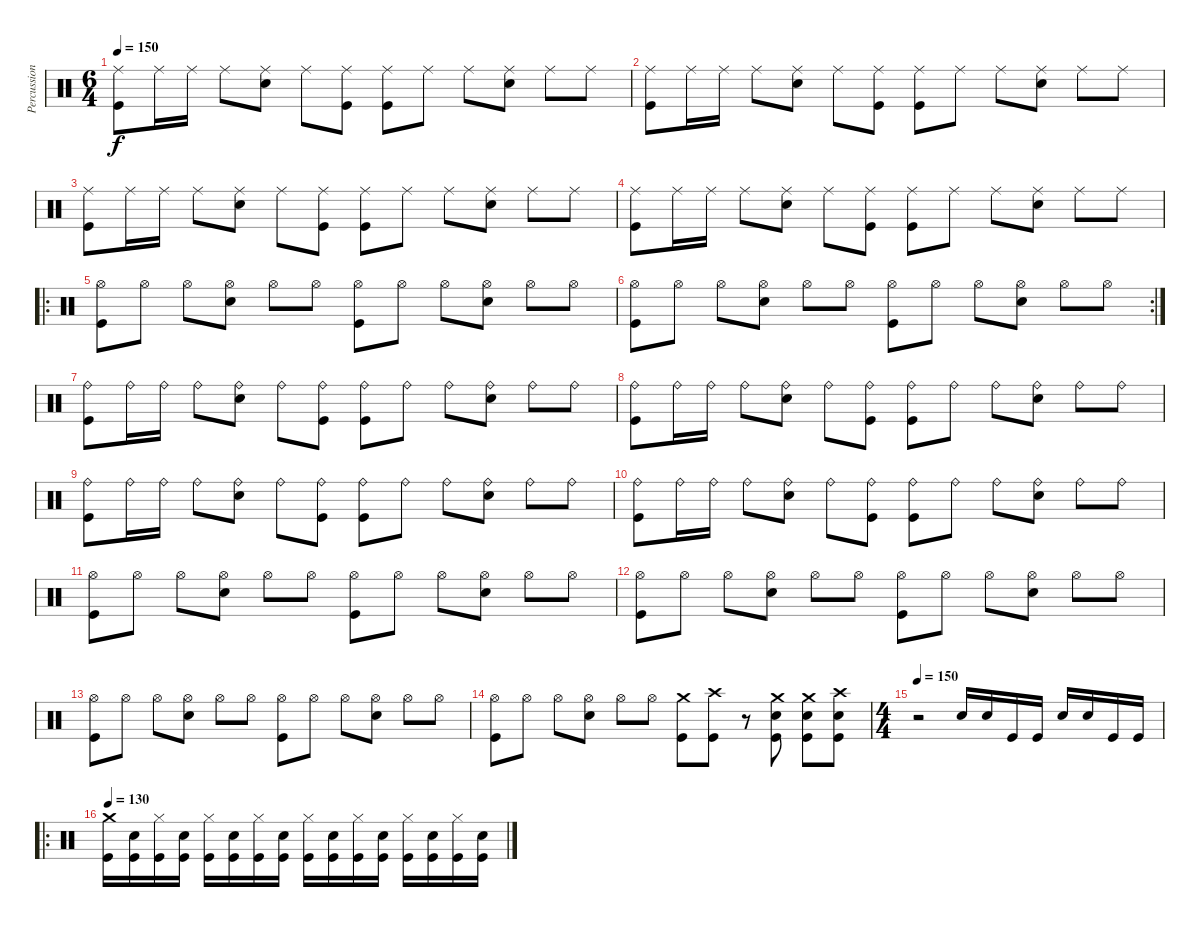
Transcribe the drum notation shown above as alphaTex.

\track ("Percussion" "Percussion") {instrument percussion}
\staff {score}
\articulation defaults
\ts (6 4)
\tempo 150
\tempo 160
\tempo 150
\clef neutral
\ks c
("Ride (middle)" "Kick (hit)").8{dy f} "Ride (middle)".16 "Ride (middle)".16 "Ride (middle)".8 ("Ride (middle)" "Snare (hit) 2").8 "Ride (middle)".8 ("Ride (middle)" "Kick (hit)").8 ("Ride (middle)" "Kick (hit)").8 "Ride (middle)".8 "Ride (middle)".8 ("Ride (middle)" "Snare (hit) 2").8 "Ride (middle)".8 "Ride (middle)".8 |
("Ride (middle)" "Kick (hit)").8 "Ride (middle)".16 "Ride (middle)".16 "Ride (middle)".8 ("Ride (middle)" "Snare (hit) 2").8 "Ride (middle)".8 ("Ride (middle)" "Kick (hit)").8 ("Ride (middle)" "Kick (hit)").8 "Ride (middle)".8 "Ride (middle)".8 ("Ride (middle)" "Snare (hit) 2").8 "Ride (middle)".8 "Ride (middle)".8 |
("Ride (middle)" "Kick (hit)").8 "Ride (middle)".16 "Ride (middle)".16 "Ride (middle)".8 ("Ride (middle)" "Snare (hit) 2").8 "Ride (middle)".8 ("Ride (middle)" "Kick (hit)").8 ("Ride (middle)" "Kick (hit)").8 "Ride (middle)".8 "Ride (middle)".8 ("Ride (middle)" "Snare (hit) 2").8 "Ride (middle)".8 "Ride (middle)".8 |
("Ride (middle)" "Kick (hit)").8 "Ride (middle)".16 "Ride (middle)".16 "Ride (middle)".8 ("Ride (middle)" "Snare (hit) 2").8 "Ride (middle)".8 ("Ride (middle)" "Kick (hit)").8 ("Ride (middle)" "Kick (hit)").8 "Ride (middle)".8 "Ride (middle)".8 ("Ride (middle)" "Snare (hit) 2").8 "Ride (middle)".8 "Ride (middle)".8 |
\ro
("Hi-Hat (open)" "Kick (hit)").8 "Hi-Hat (open)".8 "Hi-Hat (open)".8 ("Hi-Hat (open)" "Snare (hit) 2").8 "Hi-Hat (open)".8 "Hi-Hat (open)".8 ("Hi-Hat (open)" "Kick (hit)").8 "Hi-Hat (open)".8 "Hi-Hat (open)".8 ("Hi-Hat (open)" "Snare (hit) 2").8 "Hi-Hat (open)".8 "Hi-Hat (open)".8 |
\rc 2
("Hi-Hat (open)" "Kick (hit)").8 "Hi-Hat (open)".8 "Hi-Hat (open)".8 ("Hi-Hat (open)" "Snare (hit) 2").8 "Hi-Hat (open)".8 "Hi-Hat (open)".8 ("Hi-Hat (open)" "Kick (hit)").8 "Hi-Hat (open)".8 "Hi-Hat (open)".8 ("Hi-Hat (open)" "Snare (hit) 2").8 "Hi-Hat (open)".8 "Hi-Hat (open)".8 |
("Ride (bell)" "Kick (hit)").8 "Ride (bell)".16 "Ride (bell)".16 "Ride (bell)".8 ("Ride (bell)" "Snare (hit) 2").8 "Ride (bell)".8 ("Ride (bell)" "Kick (hit)").8 ("Ride (bell)" "Kick (hit)").8 "Ride (bell)".8 "Ride (bell)".8 ("Ride (bell)" "Snare (hit) 2").8 "Ride (bell)".8 "Ride (bell)".8 |
("Ride (bell)" "Kick (hit)").8 "Ride (bell)".16 "Ride (bell)".16 "Ride (bell)".8 ("Ride (bell)" "Snare (hit) 2").8 "Ride (bell)".8 ("Ride (bell)" "Kick (hit)").8 ("Ride (bell)" "Kick (hit)").8 "Ride (bell)".8 "Ride (bell)".8 ("Ride (bell)" "Snare (hit) 2").8 "Ride (bell)".8 "Ride (bell)".8 |
("Ride (bell)" "Kick (hit)").8 "Ride (bell)".16 "Ride (bell)".16 "Ride (bell)".8 ("Ride (bell)" "Snare (hit) 2").8 "Ride (bell)".8 ("Ride (bell)" "Kick (hit)").8 ("Ride (bell)" "Kick (hit)").8 "Ride (bell)".8 "Ride (bell)".8 ("Ride (bell)" "Snare (hit) 2").8 "Ride (bell)".8 "Ride (bell)".8 |
("Ride (bell)" "Kick (hit)").8 "Ride (bell)".16 "Ride (bell)".16 "Ride (bell)".8 ("Ride (bell)" "Snare (hit) 2").8 "Ride (bell)".8 ("Ride (bell)" "Kick (hit)").8 ("Ride (bell)" "Kick (hit)").8 "Ride (bell)".8 "Ride (bell)".8 ("Ride (bell)" "Snare (hit) 2").8 "Ride (bell)".8 "Ride (bell)".8 |
("Hi-Hat (open)" "Kick (hit)").8 "Hi-Hat (open)".8 "Hi-Hat (open)".8 ("Hi-Hat (open)" "Snare (hit) 2").8 "Hi-Hat (open)".8 "Hi-Hat (open)".8 ("Hi-Hat (open)" "Kick (hit)").8 "Hi-Hat (open)".8 "Hi-Hat (open)".8 ("Hi-Hat (open)" "Snare (hit) 2").8 "Hi-Hat (open)".8 "Hi-Hat (open)".8 |
("Hi-Hat (open)" "Kick (hit)").8 "Hi-Hat (open)".8 "Hi-Hat (open)".8 ("Hi-Hat (open)" "Snare (hit) 2").8 "Hi-Hat (open)".8 "Hi-Hat (open)".8 ("Hi-Hat (open)" "Kick (hit)").8 "Hi-Hat (open)".8 "Hi-Hat (open)".8 ("Hi-Hat (open)" "Snare (hit) 2").8 "Hi-Hat (open)".8 "Hi-Hat (open)".8 |
("Hi-Hat (open)" "Kick (hit)").8 "Hi-Hat (open)".8 "Hi-Hat (open)".8 ("Hi-Hat (open)" "Snare (hit) 2").8 "Hi-Hat (open)".8 "Hi-Hat (open)".8 ("Hi-Hat (open)" "Kick (hit)").8 "Hi-Hat (open)".8 "Hi-Hat (open)".8 ("Hi-Hat (open)" "Snare (hit) 2").8 "Hi-Hat (open)".8 "Hi-Hat (open)".8 |
("Hi-Hat (open)" "Kick (hit)").8 "Hi-Hat (open)".8 "Hi-Hat (open)".8 ("Hi-Hat (open)" "Snare (hit) 2").8 "Hi-Hat (open)".8 "Hi-Hat (open)".8 ("Crash medium (hit)" "Kick (hit)").8 ("Crash high (hit)" "Kick (hit)").8 r.8 ("Crash medium (hit)" "Snare (hit) 2" "Kick (hit)").8 ("Crash medium (hit)" "Snare (hit) 2" "Kick (hit)").8 ("Crash high (hit)" "Snare (hit) 2" "Kick (hit)").8 |
\ts (4 4)
\tempo 150
r.2 "Snare (hit) 2".16 "Snare (hit) 2".16 "Kick (hit)".16 "Kick (hit)".16 "Snare (hit) 2".16 "Snare (hit) 2".16 "Kick (hit)".16 "Kick (hit)".16 |
\ro
\tempo 130
("Crash medium (hit)" "Kick (hit)").16 ("Kick (hit)" "Snare (hit) 2").16 ("Hi-Hat (closed)" "Kick (hit)").16 ("Kick (hit)" "Snare (hit) 2").16 ("Hi-Hat (closed)" "Kick (hit)").16 ("Kick (hit)" "Snare (hit) 2").16 ("Hi-Hat (closed)" "Kick (hit)").16 ("Kick (hit)" "Snare (hit) 2").16 ("Hi-Hat (closed)" "Kick (hit)").16 ("Kick (hit)" "Snare (hit) 2").16 ("Hi-Hat (closed)" "Kick (hit)").16 ("Kick (hit)" "Snare (hit) 2").16 ("Hi-Hat (closed)" "Kick (hit)").16 ("Kick (hit)" "Snare (hit) 2").16 ("Hi-Hat (closed)" "Kick (hit)").16 ("Kick (hit)" "Snare (hit) 2").16
